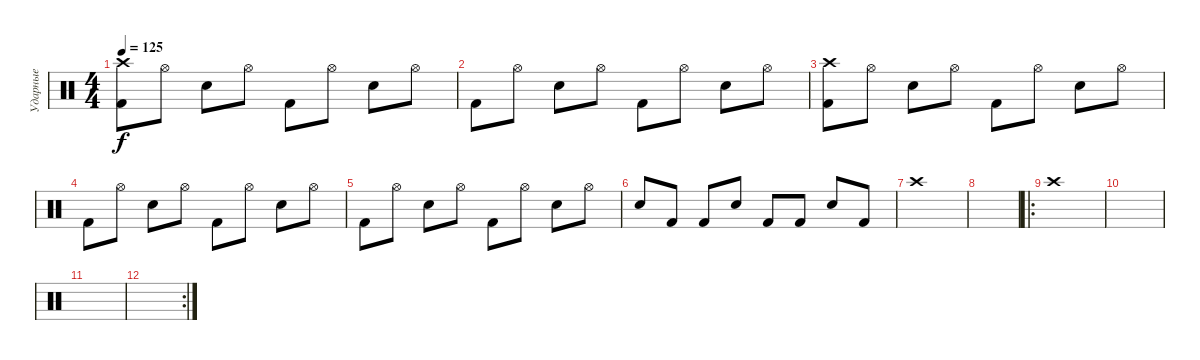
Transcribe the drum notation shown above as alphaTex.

\track ("Ударные" "Ударные") {instrument percussion}
\staff {score}
\articulation defaults
\ts (4 4)
\tempo 125
\clef neutral
\ks c
("Crash high (hit)" "Kick (hit) 2").8{dy f} "Hi-Hat (open)".8 "Snare (hit) 2".8 "Hi-Hat (open)".8 "Kick (hit) 2".8 "Hi-Hat (open)".8 "Snare (hit) 2".8 "Hi-Hat (open)".8 |
"Kick (hit) 2".8 "Hi-Hat (open)".8 "Snare (hit) 2".8 "Hi-Hat (open)".8 "Kick (hit) 2".8 "Hi-Hat (open)".8 "Snare (hit) 2".8 "Hi-Hat (open)".8 |
("Crash high (hit)" "Kick (hit) 2").8 "Hi-Hat (open)".8 "Snare (hit) 2".8 "Hi-Hat (open)".8 "Kick (hit) 2".8 "Hi-Hat (open)".8 "Snare (hit) 2".8 "Hi-Hat (open)".8 |
"Kick (hit) 2".8 "Hi-Hat (open)".8 "Snare (hit) 2".8 "Hi-Hat (open)".8 "Kick (hit) 2".8 "Hi-Hat (open)".8 "Snare (hit) 2".8 "Hi-Hat (open)".8 |
"Kick (hit) 2".8 "Hi-Hat (open)".8 "Snare (hit) 2".8 "Hi-Hat (open)".8 "Kick (hit) 2".8 "Hi-Hat (open)".8 "Snare (hit) 2".8 "Hi-Hat (open)".8 |
"Snare (hit) 2".8 "Kick (hit) 2".8 "Kick (hit) 2".8 "Snare (hit) 2".8 "Kick (hit) 2".8 "Kick (hit) 2".8 "Snare (hit) 2".8 "Kick (hit) 2".8 |
"Crash high (hit)".1 |
|
\ro "Crash high (hit)".1
|
|
|
\rc 2
